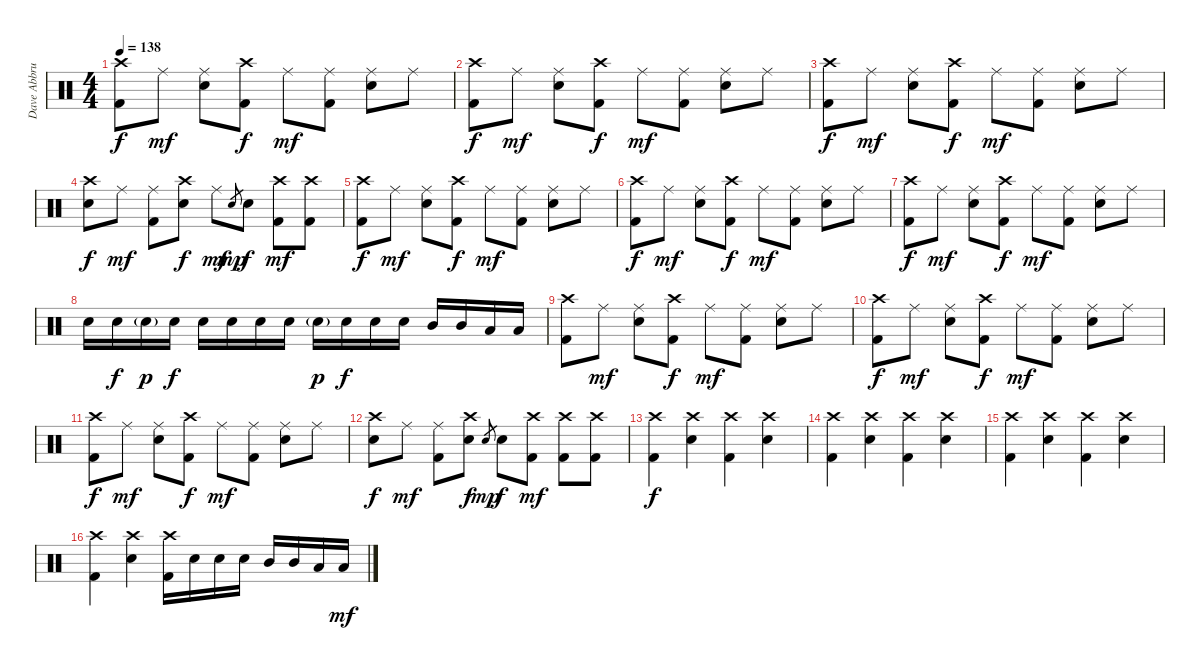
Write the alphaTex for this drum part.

\track ("Dave Abbruze - Drums" "Dave Abbru") {instrument percussion}
\staff {score}
\articulation defaults
\ts (4 4)
\tempo 138
\clef neutral
\ks c
("Crash high (hit)" "Kick (hit) 2").8{dy f} "Ride (middle)".8{dy mf} ("Ride (middle)" "Electric Snare (hit)").8 ("Crash high (hit)" "Kick (hit) 2").8{dy f} "Ride (middle)".8{dy mf} ("Ride (middle)" "Kick (hit) 2").8 ("Ride (middle)" "Electric Snare (hit)").8 "Ride (middle)".8 |
("Crash high (hit)" "Kick (hit) 2").8{dy f} "Ride (middle)".8{dy mf} ("Ride (middle)" "Electric Snare (hit)").8 ("Crash high (hit)" "Kick (hit) 2").8{dy f} "Ride (middle)".8{dy mf} ("Ride (middle)" "Kick (hit) 2").8 ("Ride (middle)" "Electric Snare (hit)").8 "Ride (middle)".8 |
("Crash high (hit)" "Kick (hit) 2").8{dy f} "Ride (middle)".8{dy mf} ("Ride (middle)" "Electric Snare (hit)").8 ("Crash high (hit)" "Kick (hit) 2").8{dy f} "Ride (middle)".8{dy mf} ("Ride (middle)" "Kick (hit) 2").8 ("Ride (middle)" "Electric Snare (hit)").8 "Ride (middle)".8 |
("Crash high (hit)" "Electric Snare (hit)").8{dy f} "Ride (middle)".8{dy mf} ("Ride (middle)" "Kick (hit) 2").8 ("Crash high (hit)" "Electric Snare (hit)").8{dy f} "Ride (middle)".8{dy mf} "Electric Snare (hit)".8{gr dy mp} "Electric Snare (hit)".8{dy f} ("Crash high (hit)" "Kick (hit) 2").8{dy mf} ("Crash high (hit)" "Kick (hit) 2").8 |
("Crash high (hit)" "Kick (hit) 2").8{dy f} "Ride (middle)".8{dy mf} ("Ride (middle)" "Electric Snare (hit)").8 ("Crash high (hit)" "Kick (hit) 2").8{dy f} "Ride (middle)".8{dy mf} ("Ride (middle)" "Kick (hit) 2").8 ("Ride (middle)" "Electric Snare (hit)").8 "Ride (middle)".8 |
("Crash high (hit)" "Kick (hit) 2").8{dy f} "Ride (middle)".8{dy mf} ("Ride (middle)" "Electric Snare (hit)").8 ("Crash high (hit)" "Kick (hit) 2").8{dy f} "Ride (middle)".8{dy mf} ("Ride (middle)" "Kick (hit) 2").8 ("Ride (middle)" "Electric Snare (hit)").8 "Ride (middle)".8 |
("Crash high (hit)" "Kick (hit) 2").8{dy f} "Ride (middle)".8{dy mf} ("Ride (middle)" "Electric Snare (hit)").8 ("Crash high (hit)" "Kick (hit) 2").8{dy f} "Ride (middle)".8{dy mf} ("Ride (middle)" "Kick (hit) 2").8 ("Ride (middle)" "Electric Snare (hit)").8 "Ride (middle)".8 |
"Electric Snare (hit)".16 "Electric Snare (hit)".16{dy f} "Electric Snare (hit)"{g}.16{dy p} "Electric Snare (hit)".16{dy f} "Electric Snare (hit)".16 "Electric Snare (hit)".16 "Electric Snare (hit)".16 "Electric Snare (hit)".16 "Electric Snare (hit)"{g}.16{dy p} "Electric Snare (hit)".16{dy f} "Electric Snare (hit)".16 "Electric Snare (hit)".16 "Mid Tom (hit)".16 "Mid Tom (hit)".16 "Low Tom (hit)".16 "Low Tom (hit)".16 |
("Crash high (hit)" "Kick (hit) 2").8 "Ride (middle)".8{dy mf} ("Ride (middle)" "Electric Snare (hit)").8 ("Crash high (hit)" "Kick (hit) 2").8{dy f} "Ride (middle)".8{dy mf} ("Ride (middle)" "Kick (hit) 2").8 ("Ride (middle)" "Electric Snare (hit)").8 "Ride (middle)".8 |
("Crash high (hit)" "Kick (hit) 2").8{dy f} "Ride (middle)".8{dy mf} ("Ride (middle)" "Electric Snare (hit)").8 ("Crash high (hit)" "Kick (hit) 2").8{dy f} "Ride (middle)".8{dy mf} ("Ride (middle)" "Kick (hit) 2").8 ("Ride (middle)" "Electric Snare (hit)").8 "Ride (middle)".8 |
("Crash high (hit)" "Kick (hit) 2").8{dy f} "Ride (middle)".8{dy mf} ("Ride (middle)" "Electric Snare (hit)").8 ("Crash high (hit)" "Kick (hit) 2").8{dy f} "Ride (middle)".8{dy mf} ("Ride (middle)" "Kick (hit) 2").8 ("Ride (middle)" "Electric Snare (hit)").8 "Ride (middle)".8 |
("Crash high (hit)" "Electric Snare (hit)").8{dy f} "Ride (middle)".8{dy mf} ("Ride (middle)" "Kick (hit) 2").8 ("Crash high (hit)" "Electric Snare (hit)").8{dy f} "Electric Snare (hit)".8{gr dy mp} "Electric Snare (hit)".8{dy f} ("Crash high (hit)" "Kick (hit) 2").8{dy mf} ("Crash high (hit)" "Kick (hit) 2").8 ("Crash high (hit)" "Kick (hit) 2").8 |
("Crash high (hit)" "Kick (hit) 2").4{dy f} ("Crash high (hit)" "Electric Snare (hit)").4 ("Crash high (hit)" "Kick (hit) 2").4 ("Crash high (hit)" "Electric Snare (hit)").4 |
("Crash high (hit)" "Kick (hit) 2").4 ("Crash high (hit)" "Electric Snare (hit)").4 ("Crash high (hit)" "Kick (hit) 2").4 ("Crash high (hit)" "Electric Snare (hit)").4 |
("Crash high (hit)" "Kick (hit) 2").4 ("Crash high (hit)" "Electric Snare (hit)").4 ("Crash high (hit)" "Kick (hit) 2").4 ("Crash high (hit)" "Electric Snare (hit)").4 |
("Crash high (hit)" "Kick (hit) 2").4 ("Crash high (hit)" "Electric Snare (hit)").4 ("Crash high (hit)" "Kick (hit) 2").16 "Electric Snare (hit)".16 "Electric Snare (hit)".16 "Electric Snare (hit)".16 "Mid Tom (hit)".16 "Mid Tom (hit)".16 "Low Tom (hit)".16 "Low Tom (hit)".16{dy mf}
